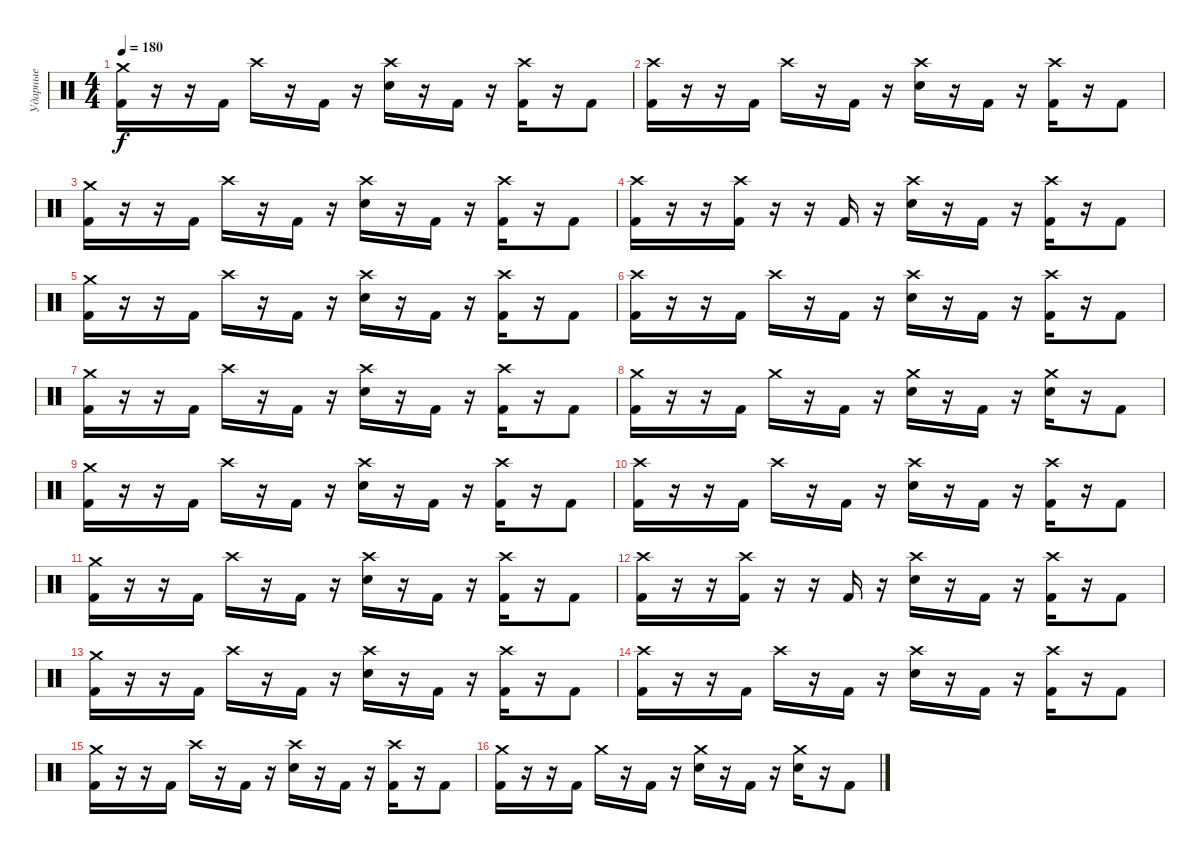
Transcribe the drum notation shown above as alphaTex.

\track ("Ударные" "Ударные") {instrument percussion}
\staff {score}
\articulation defaults
\ts (4 4)
\tempo 180
\clef neutral
\ks c
("Crash medium (hit)" "Kick (hit) 2").16{dy f} r.16 r.16 "Kick (hit) 2".16 "Crash high (hit)".16 r.16 "Kick (hit) 2".16 r.16 ("Crash high (hit)" "Electric Snare (hit)").16 r.16 "Kick (hit) 2".16 r.16 ("Crash high (hit)" "Kick (hit) 2").16 r.16 "Kick (hit) 2".8 |
("Crash high (hit)" "Kick (hit) 2").16 r.16 r.16 "Kick (hit) 2".16 "Crash high (hit)".16 r.16 "Kick (hit) 2".16 r.16 ("Crash high (hit)" "Electric Snare (hit)").16 r.16 "Kick (hit) 2".16 r.16 ("Crash high (hit)" "Kick (hit) 2").16 r.16 "Kick (hit) 2".8 |
("Crash medium (hit)" "Kick (hit) 2").16 r.16 r.16 "Kick (hit) 2".16 "Crash high (hit)".16 r.16 "Kick (hit) 2".16 r.16 ("Crash high (hit)" "Electric Snare (hit)").16 r.16 "Kick (hit) 2".16 r.16 ("Crash high (hit)" "Kick (hit) 2").16 r.16 "Kick (hit) 2".8 |
("Crash high (hit)" "Kick (hit) 2").16 r.16 r.16 ("Crash high (hit)" "Kick (hit) 2").16 r.16 r.16 "Kick (hit) 2".16 r.16 ("Crash high (hit)" "Electric Snare (hit)").16 r.16 "Kick (hit) 2".16 r.16 ("Crash high (hit)" "Kick (hit) 2").16 r.16 "Kick (hit) 2".8 |
("Crash medium (hit)" "Kick (hit) 2").16 r.16 r.16 "Kick (hit) 2".16 "Crash high (hit)".16 r.16 "Kick (hit) 2".16 r.16 ("Crash high (hit)" "Electric Snare (hit)").16 r.16 "Kick (hit) 2".16 r.16 ("Crash high (hit)" "Kick (hit) 2").16 r.16 "Kick (hit) 2".8 |
("Crash high (hit)" "Kick (hit) 2").16 r.16 r.16 "Kick (hit) 2".16 "Crash high (hit)".16 r.16 "Kick (hit) 2".16 r.16 ("Crash high (hit)" "Electric Snare (hit)").16 r.16 "Kick (hit) 2".16 r.16 ("Crash high (hit)" "Kick (hit) 2").16 r.16 "Kick (hit) 2".8 |
("Crash medium (hit)" "Kick (hit) 2").16 r.16 r.16 "Kick (hit) 2".16 "Crash high (hit)".16 r.16 "Kick (hit) 2".16 r.16 ("Crash high (hit)" "Electric Snare (hit)").16 r.16 "Kick (hit) 2".16 r.16 ("Crash high (hit)" "Kick (hit) 2").16 r.16 "Kick (hit) 2".8 |
("Crash medium (hit)" "Kick (hit) 2").16 r.16 r.16 "Kick (hit) 2".16 "Crash medium (hit)".16 r.16 "Kick (hit) 2".16 r.16 ("Crash medium (hit)" "Electric Snare (hit)").16 r.16 "Kick (hit) 2".16 r.16 ("Crash medium (hit)" "Electric Snare (hit)").16 r.16 "Kick (hit) 2".8 |
("Crash medium (hit)" "Kick (hit) 2").16 r.16 r.16 "Kick (hit) 2".16 "Crash high (hit)".16 r.16 "Kick (hit) 2".16 r.16 ("Crash high (hit)" "Electric Snare (hit)").16 r.16 "Kick (hit) 2".16 r.16 ("Crash high (hit)" "Kick (hit) 2").16 r.16 "Kick (hit) 2".8 |
("Crash high (hit)" "Kick (hit) 2").16 r.16 r.16 "Kick (hit) 2".16 "Crash high (hit)".16 r.16 "Kick (hit) 2".16 r.16 ("Crash high (hit)" "Electric Snare (hit)").16 r.16 "Kick (hit) 2".16 r.16 ("Crash high (hit)" "Kick (hit) 2").16 r.16 "Kick (hit) 2".8 |
("Crash medium (hit)" "Kick (hit) 2").16 r.16 r.16 "Kick (hit) 2".16 "Crash high (hit)".16 r.16 "Kick (hit) 2".16 r.16 ("Crash high (hit)" "Electric Snare (hit)").16 r.16 "Kick (hit) 2".16 r.16 ("Crash high (hit)" "Kick (hit) 2").16 r.16 "Kick (hit) 2".8 |
("Crash high (hit)" "Kick (hit) 2").16 r.16 r.16 ("Crash high (hit)" "Kick (hit) 2").16 r.16 r.16 "Kick (hit) 2".16 r.16 ("Crash high (hit)" "Electric Snare (hit)").16 r.16 "Kick (hit) 2".16 r.16 ("Crash high (hit)" "Kick (hit) 2").16 r.16 "Kick (hit) 2".8 |
("Crash medium (hit)" "Kick (hit) 2").16 r.16 r.16 "Kick (hit) 2".16 "Crash high (hit)".16 r.16 "Kick (hit) 2".16 r.16 ("Crash high (hit)" "Electric Snare (hit)").16 r.16 "Kick (hit) 2".16 r.16 ("Crash high (hit)" "Kick (hit) 2").16 r.16 "Kick (hit) 2".8 |
("Crash high (hit)" "Kick (hit) 2").16 r.16 r.16 "Kick (hit) 2".16 "Crash high (hit)".16 r.16 "Kick (hit) 2".16 r.16 ("Crash high (hit)" "Electric Snare (hit)").16 r.16 "Kick (hit) 2".16 r.16 ("Crash high (hit)" "Kick (hit) 2").16 r.16 "Kick (hit) 2".8 |
("Crash medium (hit)" "Kick (hit) 2").16 r.16 r.16 "Kick (hit) 2".16 "Crash high (hit)".16 r.16 "Kick (hit) 2".16 r.16 ("Crash high (hit)" "Electric Snare (hit)").16 r.16 "Kick (hit) 2".16 r.16 ("Crash high (hit)" "Kick (hit) 2").16 r.16 "Kick (hit) 2".8 |
("Crash medium (hit)" "Kick (hit) 2").16 r.16 r.16 "Kick (hit) 2".16 "Crash medium (hit)".16 r.16 "Kick (hit) 2".16 r.16 ("Crash medium (hit)" "Electric Snare (hit)").16 r.16 "Kick (hit) 2".16 r.16 ("Crash medium (hit)" "Electric Snare (hit)").16 r.16 "Kick (hit) 2".8
